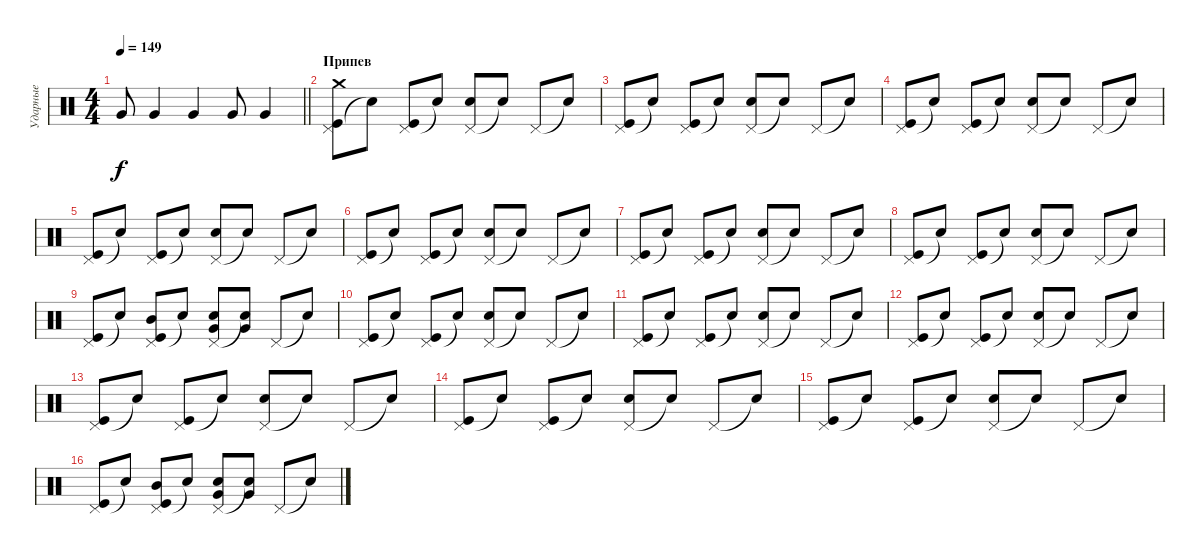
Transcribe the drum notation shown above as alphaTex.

\track ("Ударные" "Ударные") {instrument percussion}
\staff {score}
\articulation defaults
\ts (4 4)
\tempo 149
\clef neutral
\barLineRight lightlight
\ks c "Very Low Tom (hit)".8{dy f} "Very Low Tom (hit)".4 "Very Low Tom (hit)".4 "Very Low Tom (hit)".8 "Very Low Tom (hit)".4
|
\section ("" "Припев")
("Pedal Hi-Hat (hit)" "Kick (hit)" "Crash medium (hit)").8 "Snare (hit)"{t}.8 ("Pedal Hi-Hat (hit)" "Kick (hit)").8 "Snare (hit)"{t}.8 ("Pedal Hi-Hat (hit)" "Snare (hit) 2").8 "Snare (hit)"{t}.8 "Pedal Hi-Hat (hit)".8 "Snare (hit)"{t}.8 |
("Pedal Hi-Hat (hit)" "Kick (hit)").8 "Snare (hit)"{t}.8 ("Pedal Hi-Hat (hit)" "Kick (hit)").8 "Snare (hit)"{t}.8 ("Pedal Hi-Hat (hit)" "Snare (hit) 2").8 "Snare (hit)"{t}.8 "Pedal Hi-Hat (hit)".8 "Snare (hit)"{t}.8 |
("Pedal Hi-Hat (hit)" "Kick (hit)").8 "Snare (hit)"{t}.8 ("Pedal Hi-Hat (hit)" "Kick (hit)").8 "Snare (hit)"{t}.8 ("Pedal Hi-Hat (hit)" "Snare (hit) 2").8 "Snare (hit)"{t}.8 "Pedal Hi-Hat (hit)".8 "Snare (hit)"{t}.8 |
("Pedal Hi-Hat (hit)" "Kick (hit)").8 "Snare (hit)"{t}.8 ("Pedal Hi-Hat (hit)" "Kick (hit)").8 "Snare (hit)"{t}.8 ("Pedal Hi-Hat (hit)" "Snare (hit) 2").8 "Snare (hit)"{t}.8 "Pedal Hi-Hat (hit)".8 "Snare (hit)"{t}.8 |
("Pedal Hi-Hat (hit)" "Kick (hit)").8 "Snare (hit)"{t}.8 ("Pedal Hi-Hat (hit)" "Kick (hit)").8 "Snare (hit)"{t}.8 ("Pedal Hi-Hat (hit)" "Snare (hit) 2").8 "Snare (hit)"{t}.8 "Pedal Hi-Hat (hit)".8 "Snare (hit)"{t}.8 |
("Pedal Hi-Hat (hit)" "Kick (hit)").8 "Snare (hit)"{t}.8 ("Pedal Hi-Hat (hit)" "Kick (hit)").8 "Snare (hit)"{t}.8 ("Pedal Hi-Hat (hit)" "Snare (hit) 2").8 "Snare (hit)"{t}.8 "Pedal Hi-Hat (hit)".8 "Snare (hit)"{t}.8 |
("Pedal Hi-Hat (hit)" "Kick (hit)").8 "Snare (hit)"{t}.8 ("Pedal Hi-Hat (hit)" "Kick (hit)").8 "Snare (hit)"{t}.8 ("Pedal Hi-Hat (hit)" "Snare (hit) 2").8 "Snare (hit)"{t}.8 "Pedal Hi-Hat (hit)".8 "Snare (hit)"{t}.8 |
("Pedal Hi-Hat (hit)" "Kick (hit)").8 "Snare (hit)"{t}.8 ("Pedal Hi-Hat (hit)" "Kick (hit)" "Mid Tom (hit)").8 "Snare (hit)"{t}.8 ("Pedal Hi-Hat (hit)" "Snare (hit) 2" "Very Low Tom (hit)").8 ("Snare (hit)"{t} "Very Low Tom (hit)").8 "Pedal Hi-Hat (hit)".8 "Snare (hit)"{t}.8 |
("Pedal Hi-Hat (hit)" "Kick (hit)").8 "Snare (hit)"{t}.8 ("Pedal Hi-Hat (hit)" "Kick (hit)").8 "Snare (hit)"{t}.8 ("Pedal Hi-Hat (hit)" "Snare (hit) 2").8 "Snare (hit)"{t}.8 "Pedal Hi-Hat (hit)".8 "Snare (hit)"{t}.8 |
("Pedal Hi-Hat (hit)" "Kick (hit)").8 "Snare (hit)"{t}.8 ("Pedal Hi-Hat (hit)" "Kick (hit)").8 "Snare (hit)"{t}.8 ("Pedal Hi-Hat (hit)" "Snare (hit) 2").8 "Snare (hit)"{t}.8 "Pedal Hi-Hat (hit)".8 "Snare (hit)"{t}.8 |
("Pedal Hi-Hat (hit)" "Kick (hit)").8 "Snare (hit)"{t}.8 ("Pedal Hi-Hat (hit)" "Kick (hit)").8 "Snare (hit)"{t}.8 ("Pedal Hi-Hat (hit)" "Snare (hit) 2").8 "Snare (hit)"{t}.8 "Pedal Hi-Hat (hit)".8 "Snare (hit)"{t}.8 |
("Pedal Hi-Hat (hit)" "Kick (hit)").8 "Snare (hit)"{t}.8 ("Pedal Hi-Hat (hit)" "Kick (hit)").8 "Snare (hit)"{t}.8 ("Pedal Hi-Hat (hit)" "Snare (hit) 2").8 "Snare (hit)"{t}.8 "Pedal Hi-Hat (hit)".8 "Snare (hit)"{t}.8 |
("Pedal Hi-Hat (hit)" "Kick (hit)").8 "Snare (hit)"{t}.8 ("Pedal Hi-Hat (hit)" "Kick (hit)").8 "Snare (hit)"{t}.8 ("Pedal Hi-Hat (hit)" "Snare (hit) 2").8 "Snare (hit)"{t}.8 "Pedal Hi-Hat (hit)".8 "Snare (hit)"{t}.8 |
("Pedal Hi-Hat (hit)" "Kick (hit)").8 "Snare (hit)"{t}.8 ("Pedal Hi-Hat (hit)" "Kick (hit)").8 "Snare (hit)"{t}.8 ("Pedal Hi-Hat (hit)" "Snare (hit) 2").8 "Snare (hit)"{t}.8 "Pedal Hi-Hat (hit)".8 "Snare (hit)"{t}.8 |
("Pedal Hi-Hat (hit)" "Kick (hit)").8 "Snare (hit)"{t}.8 ("Pedal Hi-Hat (hit)" "Kick (hit)" "Mid Tom (hit)").8 "Snare (hit)"{t}.8 ("Pedal Hi-Hat (hit)" "Snare (hit) 2" "Very Low Tom (hit)").8 ("Snare (hit)"{t} "Very Low Tom (hit)").8 "Pedal Hi-Hat (hit)".8 "Snare (hit)"{t}.8
